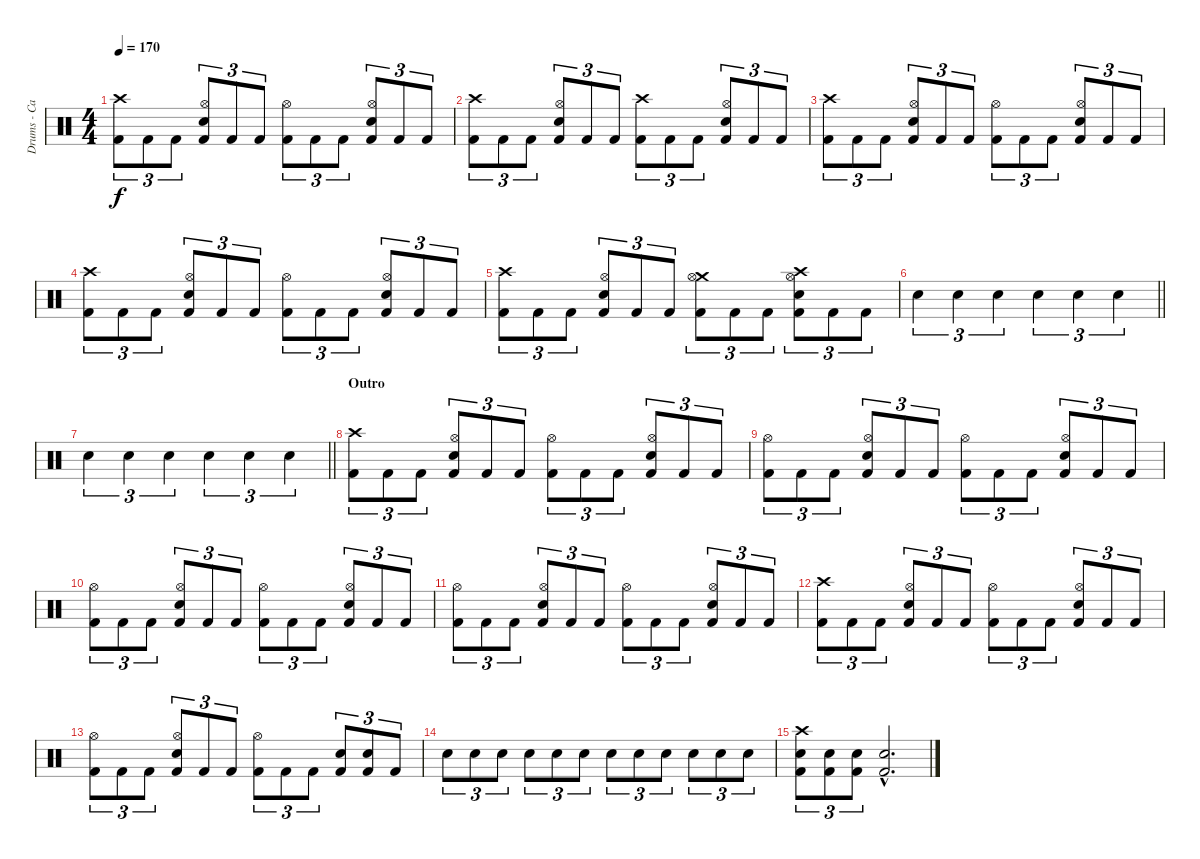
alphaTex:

\track ("Drums - Casey Grillo" "Drums - Ca") {instrument percussion}
\staff {score}
\articulation defaults
\ts (4 4)
\tempo 170
\clef neutral
\ks c
("Crash high (hit)" "Kick (hit) 2").8{tu (3 2) dy f} "Kick (hit) 2".8{tu (3 2)} "Kick (hit) 2".8{tu (3 2)} ("Hi-Hat (open)" "Snare (hit) 2" "Kick (hit) 2").8{tu (3 2)} "Kick (hit) 2".8{tu (3 2)} "Kick (hit) 2".8{tu (3 2)} ("Hi-Hat (open)" "Kick (hit) 2").8{tu (3 2)} "Kick (hit) 2".8{tu (3 2)} "Kick (hit) 2".8{tu (3 2)} ("Hi-Hat (open)" "Snare (hit) 2" "Kick (hit) 2").8{tu (3 2)} "Kick (hit) 2".8{tu (3 2)} "Kick (hit) 2".8{tu (3 2)} |
("Crash high (hit)" "Kick (hit) 2").8{tu (3 2)} "Kick (hit) 2".8{tu (3 2)} "Kick (hit) 2".8{tu (3 2)} ("Hi-Hat (open)" "Snare (hit) 2" "Kick (hit) 2").8{tu (3 2)} "Kick (hit) 2".8{tu (3 2)} "Kick (hit) 2".8{tu (3 2)} ("Crash high (hit)" "Kick (hit) 2").8{tu (3 2)} "Kick (hit) 2".8{tu (3 2)} "Kick (hit) 2".8{tu (3 2)} ("Hi-Hat (open)" "Snare (hit) 2" "Kick (hit) 2").8{tu (3 2)} "Kick (hit) 2".8{tu (3 2)} "Kick (hit) 2".8{tu (3 2)} |
("Crash high (hit)" "Kick (hit) 2").8{tu (3 2)} "Kick (hit) 2".8{tu (3 2)} "Kick (hit) 2".8{tu (3 2)} ("Hi-Hat (open)" "Snare (hit) 2" "Kick (hit) 2").8{tu (3 2)} "Kick (hit) 2".8{tu (3 2)} "Kick (hit) 2".8{tu (3 2)} ("Hi-Hat (open)" "Kick (hit) 2").8{tu (3 2)} "Kick (hit) 2".8{tu (3 2)} "Kick (hit) 2".8{tu (3 2)} ("Hi-Hat (open)" "Snare (hit) 2" "Kick (hit) 2").8{tu (3 2)} "Kick (hit) 2".8{tu (3 2)} "Kick (hit) 2".8{tu (3 2)} |
("Crash high (hit)" "Kick (hit) 2").8{tu (3 2)} "Kick (hit) 2".8{tu (3 2)} "Kick (hit) 2".8{tu (3 2)} ("Hi-Hat (open)" "Snare (hit) 2" "Kick (hit) 2").8{tu (3 2)} "Kick (hit) 2".8{tu (3 2)} "Kick (hit) 2".8{tu (3 2)} ("Hi-Hat (open)" "Kick (hit) 2").8{tu (3 2)} "Kick (hit) 2".8{tu (3 2)} "Kick (hit) 2".8{tu (3 2)} ("Hi-Hat (open)" "Snare (hit) 2" "Kick (hit) 2").8{tu (3 2)} "Kick (hit) 2".8{tu (3 2)} "Kick (hit) 2".8{tu (3 2)} |
("Crash high (hit)" "Kick (hit) 2").8{tu (3 2)} "Kick (hit) 2".8{tu (3 2)} "Kick (hit) 2".8{tu (3 2)} ("Hi-Hat (open)" "Snare (hit) 2" "Kick (hit) 2").8{tu (3 2)} "Kick (hit) 2".8{tu (3 2)} "Kick (hit) 2".8{tu (3 2)} ("Crash medium (hit)" "Hi-Hat (open)" "Kick (hit) 2").8{tu (3 2)} "Kick (hit) 2".8{tu (3 2)} "Kick (hit) 2".8{tu (3 2)} ("Crash high (hit)" "Hi-Hat (open)" "Snare (hit) 2" "Kick (hit) 2").8{tu (3 2)} "Kick (hit) 2".8{tu (3 2)} "Kick (hit) 2".8{tu (3 2)} |
\barLineRight lightlight "Snare (hit) 2".4{tu (3 2)} "Snare (hit) 2".4{tu (3 2)} "Snare (hit) 2".4{tu (3 2)} "Snare (hit) 2".4{tu (3 2)} "Snare (hit) 2".4{tu (3 2)} "Snare (hit) 2".4{tu (3 2)}
|
\barLineRight lightlight "Snare (hit) 2".4{tu (3 2)} "Snare (hit) 2".4{tu (3 2)} "Snare (hit) 2".4{tu (3 2)} "Snare (hit) 2".4{tu (3 2)} "Snare (hit) 2".4{tu (3 2)} "Snare (hit) 2".4{tu (3 2)}
|
\section ("" "Outro")
("Crash high (hit)" "Kick (hit) 2").8{tu (3 2)} "Kick (hit) 2".8{tu (3 2)} "Kick (hit) 2".8{tu (3 2)} ("Hi-Hat (open)" "Snare (hit) 2" "Kick (hit) 2").8{tu (3 2)} "Kick (hit) 2".8{tu (3 2)} "Kick (hit) 2".8{tu (3 2)} ("Hi-Hat (open)" "Kick (hit) 2").8{tu (3 2)} "Kick (hit) 2".8{tu (3 2)} "Kick (hit) 2".8{tu (3 2)} ("Hi-Hat (open)" "Snare (hit) 2" "Kick (hit) 2").8{tu (3 2)} "Kick (hit) 2".8{tu (3 2)} "Kick (hit) 2".8{tu (3 2)} |
("Hi-Hat (open)" "Kick (hit) 2").8{tu (3 2)} "Kick (hit) 2".8{tu (3 2)} "Kick (hit) 2".8{tu (3 2)} ("Hi-Hat (open)" "Snare (hit) 2" "Kick (hit) 2").8{tu (3 2)} "Kick (hit) 2".8{tu (3 2)} "Kick (hit) 2".8{tu (3 2)} ("Hi-Hat (open)" "Kick (hit) 2").8{tu (3 2)} "Kick (hit) 2".8{tu (3 2)} "Kick (hit) 2".8{tu (3 2)} ("Hi-Hat (open)" "Snare (hit) 2" "Kick (hit) 2").8{tu (3 2)} "Kick (hit) 2".8{tu (3 2)} "Kick (hit) 2".8{tu (3 2)} |
("Hi-Hat (open)" "Kick (hit) 2").8{tu (3 2)} "Kick (hit) 2".8{tu (3 2)} "Kick (hit) 2".8{tu (3 2)} ("Hi-Hat (open)" "Snare (hit) 2" "Kick (hit) 2").8{tu (3 2)} "Kick (hit) 2".8{tu (3 2)} "Kick (hit) 2".8{tu (3 2)} ("Hi-Hat (open)" "Kick (hit) 2").8{tu (3 2)} "Kick (hit) 2".8{tu (3 2)} "Kick (hit) 2".8{tu (3 2)} ("Hi-Hat (open)" "Snare (hit) 2" "Kick (hit) 2").8{tu (3 2)} "Kick (hit) 2".8{tu (3 2)} "Kick (hit) 2".8{tu (3 2)} |
("Hi-Hat (open)" "Kick (hit) 2").8{tu (3 2)} "Kick (hit) 2".8{tu (3 2)} "Kick (hit) 2".8{tu (3 2)} ("Hi-Hat (open)" "Snare (hit) 2" "Kick (hit) 2").8{tu (3 2)} "Kick (hit) 2".8{tu (3 2)} "Kick (hit) 2".8{tu (3 2)} ("Hi-Hat (open)" "Kick (hit) 2").8{tu (3 2)} "Kick (hit) 2".8{tu (3 2)} "Kick (hit) 2".8{tu (3 2)} ("Hi-Hat (open)" "Snare (hit) 2" "Kick (hit) 2").8{tu (3 2)} "Kick (hit) 2".8{tu (3 2)} "Kick (hit) 2".8{tu (3 2)} |
("Crash high (hit)" "Kick (hit) 2").8{tu (3 2)} "Kick (hit) 2".8{tu (3 2)} "Kick (hit) 2".8{tu (3 2)} ("Hi-Hat (open)" "Snare (hit) 2" "Kick (hit) 2").8{tu (3 2)} "Kick (hit) 2".8{tu (3 2)} "Kick (hit) 2".8{tu (3 2)} ("Hi-Hat (open)" "Kick (hit) 2").8{tu (3 2)} "Kick (hit) 2".8{tu (3 2)} "Kick (hit) 2".8{tu (3 2)} ("Hi-Hat (open)" "Snare (hit) 2" "Kick (hit) 2").8{tu (3 2)} "Kick (hit) 2".8{tu (3 2)} "Kick (hit) 2".8{tu (3 2)} |
("Hi-Hat (open)" "Kick (hit) 2").8{tu (3 2)} "Kick (hit) 2".8{tu (3 2)} "Kick (hit) 2".8{tu (3 2)} ("Hi-Hat (open)" "Snare (hit) 2" "Kick (hit) 2").8{tu (3 2)} "Kick (hit) 2".8{tu (3 2)} "Kick (hit) 2".8{tu (3 2)} ("Hi-Hat (open)" "Kick (hit) 2").8{tu (3 2)} "Kick (hit) 2".8{tu (3 2)} "Kick (hit) 2".8{tu (3 2)} ("Snare (hit) 2" "Kick (hit) 2").8{tu (3 2)} ("Snare (hit) 2" "Kick (hit) 2").8{tu (3 2)} "Kick (hit) 2".8{tu (3 2)} |
"Snare (hit) 2".8{tu (3 2)} "Snare (hit) 2".8{tu (3 2)} "Snare (hit) 2".8{tu (3 2)} "Snare (hit) 2".8{tu (3 2)} "Snare (hit) 2".8{tu (3 2)} "Snare (hit) 2".8{tu (3 2)} "Snare (hit) 2".8{tu (3 2)} "Snare (hit) 2".8{tu (3 2)} "Snare (hit) 2".8{tu (3 2)} "Snare (hit) 2".8{tu (3 2)} "Snare (hit) 2".8{tu (3 2)} "Snare (hit) 2".8{tu (3 2)} |
("Crash high (hit)" "Snare (hit) 2" "Kick (hit) 2").8{tu (3 2)} ("Snare (hit) 2" "Kick (hit) 2").8{tu (3 2)} ("Snare (hit) 2" "Kick (hit) 2").8{tu (3 2)} ("Snare (hit) 2"{hac} "Kick (hit) 2"{hac}).2{d}
